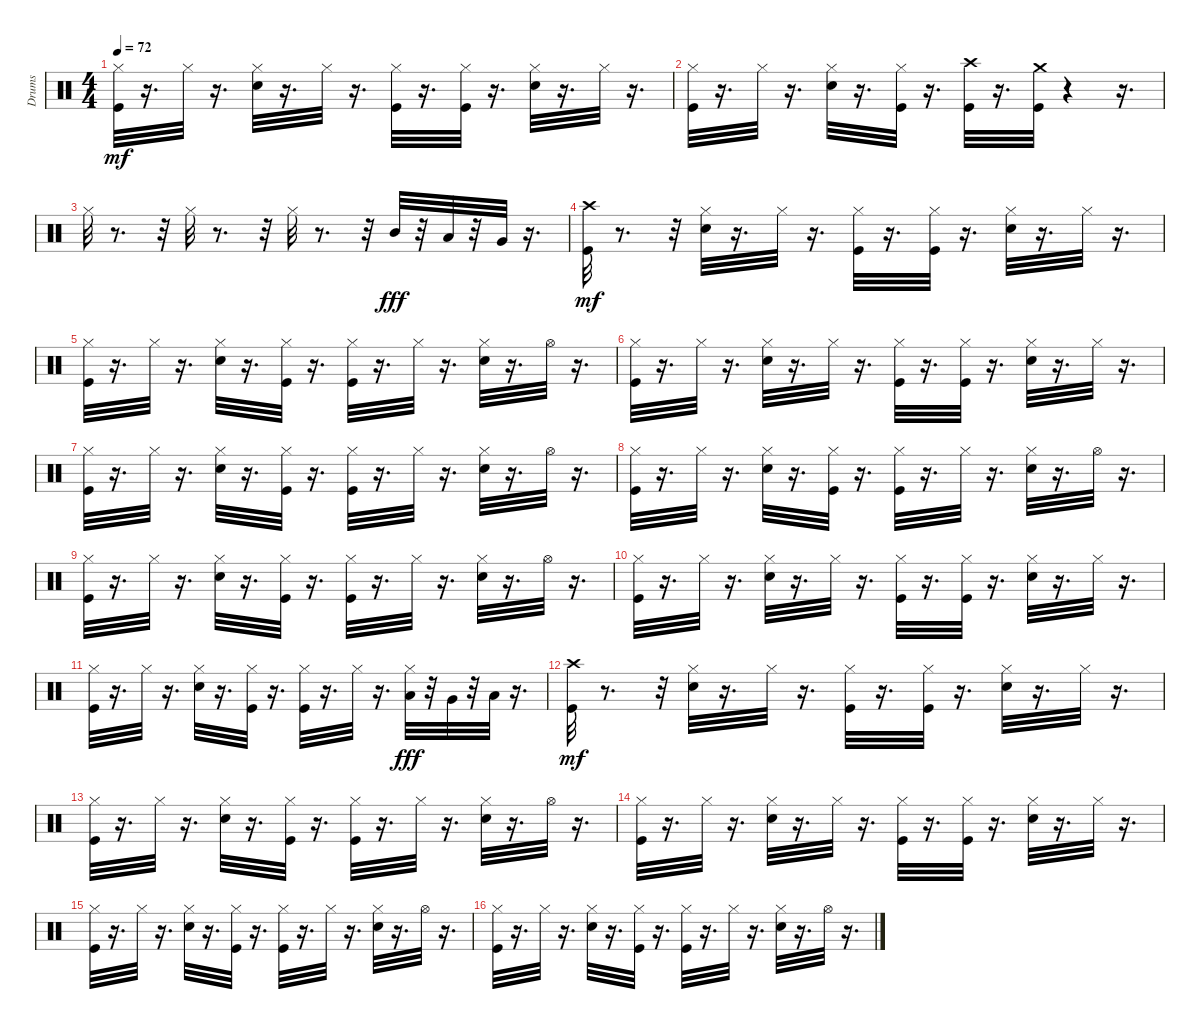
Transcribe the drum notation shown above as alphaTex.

\track ("Drums" "Drums") {instrument percussion}
\staff {score}
\articulation defaults
\ts (4 4)
\tempo 72
\clef neutral
\ks c
("Hi-Hat (closed)" "Kick (hit)").32{dy mf} r.16{d} "Hi-Hat (closed)".32 r.16{d} ("Hi-Hat (closed)" "Snare (hit) 2").32 r.16{d} "Hi-Hat (closed)".32 r.16{d} ("Hi-Hat (closed)" "Kick (hit)").32 r.16{d} ("Hi-Hat (closed)" "Kick (hit)").32 r.16{d} ("Hi-Hat (closed)" "Snare (hit) 2").32 r.16{d} "Hi-Hat (closed)".32 r.16{d} |
("Hi-Hat (closed)" "Kick (hit)").32 r.16{d} "Hi-Hat (closed)".32 r.16{d} ("Snare (hit) 2" "Hi-Hat (closed)").32 r.16{d} ("Hi-Hat (closed)" "Kick (hit)").32 r.16{d} ("Crash high (hit)" "Kick (hit)").32 r.16{d} ("Kick (hit)" "Crash medium (hit)").32 r.4 r.16{d} |
"Hi-Hat (closed)".32 r.8{d} r.32 "Hi-Hat (closed)".32 r.8{d} r.32 "Hi-Hat (closed)".32 r.8{d} r.32 "Mid Tom (hit)".32{dy fff} r.32 "Low Tom (hit)".32 r.32 "Very Low Tom (hit)".32 r.16{d} |
("Crash high (hit)" "Kick (hit)").32{dy mf} r.8{d} r.32 ("Hi-Hat (closed)" "Snare (hit) 2").32 r.16{d} "Hi-Hat (closed)".32 r.16{d} ("Hi-Hat (closed)" "Kick (hit)").32 r.16{d} ("Hi-Hat (closed)" "Kick (hit)").32 r.16{d} ("Hi-Hat (closed)" "Snare (hit) 2").32 r.16{d} "Hi-Hat (closed)".32 r.16{d} |
("Hi-Hat (closed)" "Kick (hit)").32 r.16{d} "Hi-Hat (closed)".32 r.16{d} ("Snare (hit) 2" "Hi-Hat (closed)").32 r.16{d} ("Hi-Hat (closed)" "Kick (hit)").32 r.16{d} ("Hi-Hat (closed)" "Kick (hit)").32 r.16{d} "Hi-Hat (closed)".32 r.16{d} ("Hi-Hat (closed)" "Snare (hit) 2").32 r.16{d} "Hi-Hat (open)".32 r.16{d} |
("Hi-Hat (closed)" "Kick (hit)").32 r.16{d} "Hi-Hat (closed)".32 r.16{d} ("Hi-Hat (closed)" "Snare (hit) 2").32 r.16{d} "Hi-Hat (closed)".32 r.16{d} ("Hi-Hat (closed)" "Kick (hit)").32 r.16{d} ("Hi-Hat (closed)" "Kick (hit)").32 r.16{d} ("Hi-Hat (closed)" "Snare (hit) 2").32 r.16{d} "Hi-Hat (closed)".32 r.16{d} |
("Hi-Hat (closed)" "Kick (hit)").32 r.16{d} "Hi-Hat (closed)".32 r.16{d} ("Snare (hit) 2" "Hi-Hat (closed)").32 r.16{d} ("Hi-Hat (closed)" "Kick (hit)").32 r.16{d} ("Hi-Hat (closed)" "Kick (hit)").32 r.16{d} "Hi-Hat (closed)".32 r.16{d} ("Hi-Hat (closed)" "Snare (hit) 2").32 r.16{d} "Hi-Hat (open)".32 r.16{d} |
("Hi-Hat (closed)" "Kick (hit)").32 r.16{d} "Hi-Hat (closed)".32 r.16{d} ("Snare (hit) 2" "Hi-Hat (closed)").32 r.16{d} ("Hi-Hat (closed)" "Kick (hit)").32 r.16{d} ("Hi-Hat (closed)" "Kick (hit)").32 r.16{d} "Hi-Hat (closed)".32 r.16{d} ("Hi-Hat (closed)" "Snare (hit) 2").32 r.16{d} "Hi-Hat (open)".32 r.16{d} |
("Hi-Hat (closed)" "Kick (hit)").32 r.16{d} "Hi-Hat (closed)".32 r.16{d} ("Snare (hit) 2" "Hi-Hat (closed)").32 r.16{d} ("Hi-Hat (closed)" "Kick (hit)").32 r.16{d} ("Hi-Hat (closed)" "Kick (hit)").32 r.16{d} "Hi-Hat (closed)".32 r.16{d} ("Hi-Hat (closed)" "Snare (hit) 2").32 r.16{d} "Hi-Hat (open)".32 r.16{d} |
("Hi-Hat (closed)" "Kick (hit)").32 r.16{d} "Hi-Hat (closed)".32 r.16{d} ("Hi-Hat (closed)" "Snare (hit) 2").32 r.16{d} "Hi-Hat (closed)".32 r.16{d} ("Hi-Hat (closed)" "Kick (hit)").32 r.16{d} ("Hi-Hat (closed)" "Kick (hit)").32 r.16{d} ("Hi-Hat (closed)" "Snare (hit) 2").32 r.16{d} "Hi-Hat (closed)".32 r.16{d} |
("Hi-Hat (closed)" "Kick (hit)").32 r.16{d} "Hi-Hat (closed)".32 r.16{d} ("Snare (hit) 2" "Hi-Hat (closed)").32 r.16{d} ("Hi-Hat (closed)" "Kick (hit)").32 r.16{d} ("Hi-Hat (closed)" "Kick (hit)").32 r.16{d} "Hi-Hat (closed)".32 r.16{d} ("Hi-Hat (closed)" "Low Tom (hit)").32{dy fff} r.32 "Very Low Tom (hit)".32 r.32 "Low Floor Tom (hit)".32 r.16{d} |
("Crash high (hit)" "Kick (hit)").32{dy mf} r.8{d} r.32 ("Hi-Hat (closed)" "Snare (hit) 2").32 r.16{d} "Hi-Hat (closed)".32 r.16{d} ("Hi-Hat (closed)" "Kick (hit)").32 r.16{d} ("Hi-Hat (closed)" "Kick (hit)").32 r.16{d} ("Hi-Hat (closed)" "Snare (hit) 2").32 r.16{d} "Hi-Hat (closed)".32 r.16{d} |
("Hi-Hat (closed)" "Kick (hit)").32 r.16{d} "Hi-Hat (closed)".32 r.16{d} ("Snare (hit) 2" "Hi-Hat (closed)").32 r.16{d} ("Hi-Hat (closed)" "Kick (hit)").32 r.16{d} ("Hi-Hat (closed)" "Kick (hit)").32 r.16{d} "Hi-Hat (closed)".32 r.16{d} ("Hi-Hat (closed)" "Snare (hit) 2").32 r.16{d} "Hi-Hat (open)".32 r.16{d} |
("Hi-Hat (closed)" "Kick (hit)").32 r.16{d} "Hi-Hat (closed)".32 r.16{d} ("Hi-Hat (closed)" "Snare (hit) 2").32 r.16{d} "Hi-Hat (closed)".32 r.16{d} ("Hi-Hat (closed)" "Kick (hit)").32 r.16{d} ("Hi-Hat (closed)" "Kick (hit)").32 r.16{d} ("Hi-Hat (closed)" "Snare (hit) 2").32 r.16{d} "Hi-Hat (closed)".32 r.16{d} |
("Hi-Hat (closed)" "Kick (hit)").32 r.16{d} "Hi-Hat (closed)".32 r.16{d} ("Snare (hit) 2" "Hi-Hat (closed)").32 r.16{d} ("Hi-Hat (closed)" "Kick (hit)").32 r.16{d} ("Hi-Hat (closed)" "Kick (hit)").32 r.16{d} "Hi-Hat (closed)".32 r.16{d} ("Hi-Hat (closed)" "Snare (hit) 2").32 r.16{d} "Hi-Hat (open)".32 r.16{d} |
("Hi-Hat (closed)" "Kick (hit)").32 r.16{d} "Hi-Hat (closed)".32 r.16{d} ("Snare (hit) 2" "Hi-Hat (closed)").32 r.16{d} ("Hi-Hat (closed)" "Kick (hit)").32 r.16{d} ("Hi-Hat (closed)" "Kick (hit)").32 r.16{d} "Hi-Hat (closed)".32 r.16{d} ("Hi-Hat (closed)" "Snare (hit) 2").32 r.16{d} "Hi-Hat (open)".32 r.16{d}
